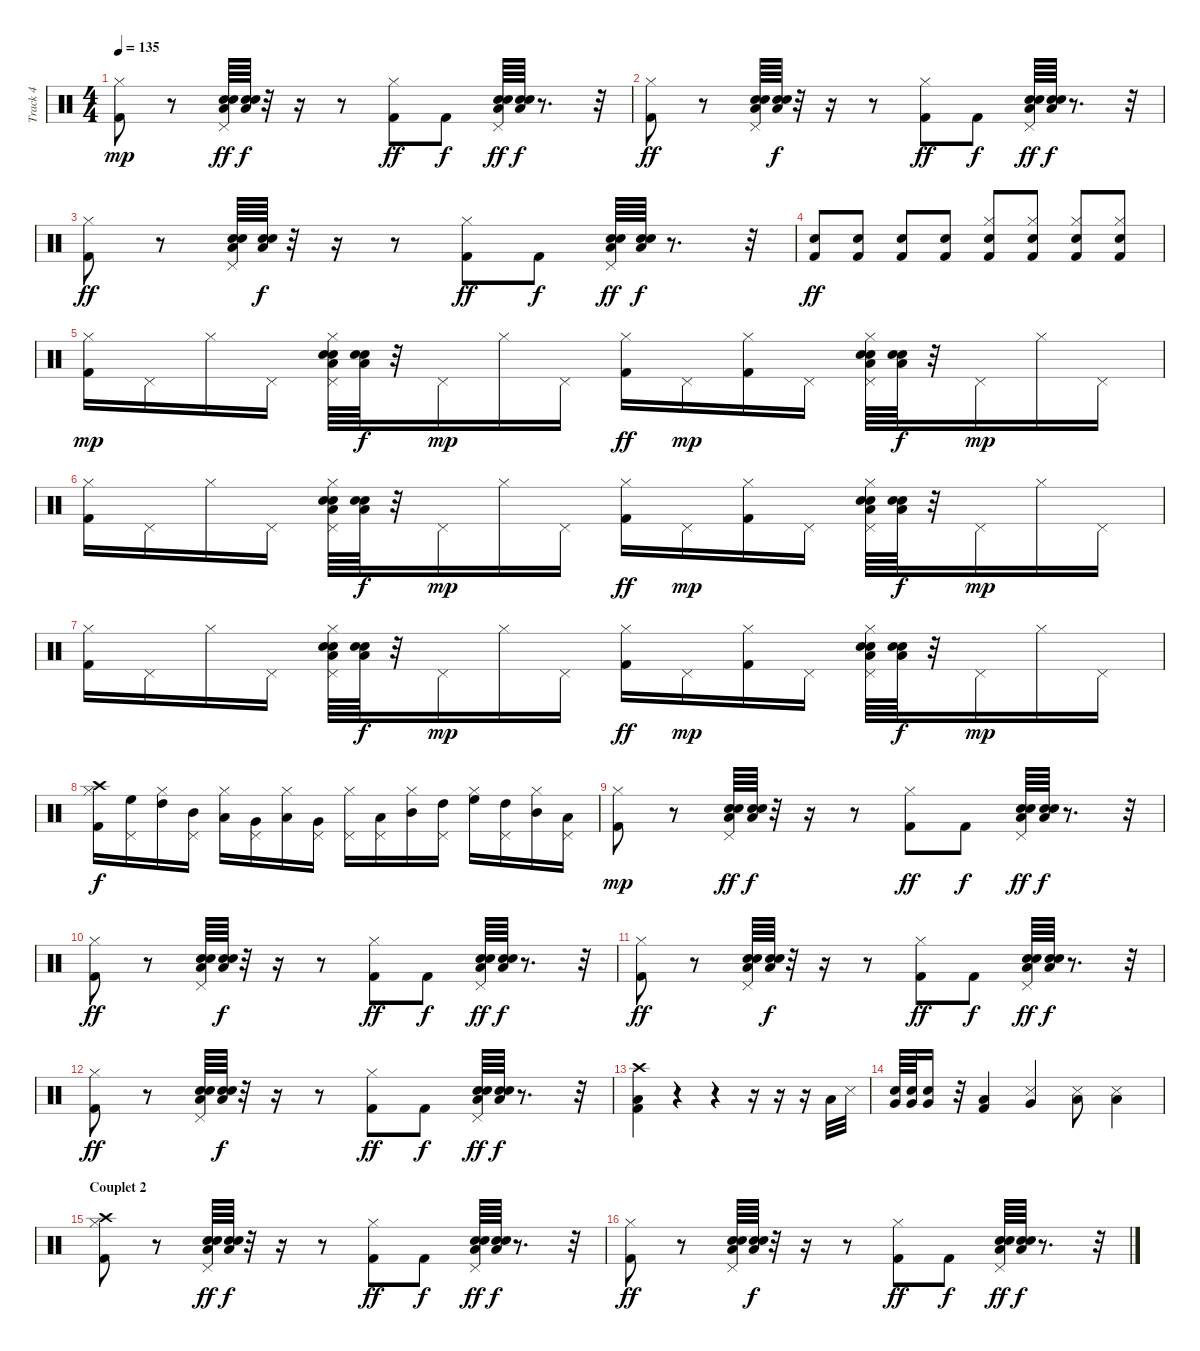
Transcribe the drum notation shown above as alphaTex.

\track ("Track 4" "Track 4") {instrument percussion}
\staff {score}
\articulation defaults
\ts (4 4)
\tempo 135
\clef neutral
\ks c
("Kick (hit) 2" "Hi-Hat (closed)").8{dy mp} r.8 ("Electric Snare (hit)" "Low Tom (hit)" "Snare (hit) 2" "Pedal Hi-Hat (hit)").64{dy ff} ("Electric Snare (hit)" "Low Tom (hit)" "Snare (hit) 2").64{dy f} r.32 r.16 r.8 ("Kick (hit) 2" "Hi-Hat (closed)").8{dy ff} "Kick (hit) 2".8{dy f} ("Electric Snare (hit)" "Low Tom (hit)" "Snare (hit) 2" "Pedal Hi-Hat (hit)").64{dy ff} ("Electric Snare (hit)" "Low Tom (hit)" "Snare (hit) 2").64{dy f} r.8{d} r.32 |
("Kick (hit) 2" "Hi-Hat (closed)").8{dy ff} r.8 ("Electric Snare (hit)" "Low Tom (hit)" "Snare (hit) 2" "Pedal Hi-Hat (hit)").64 ("Electric Snare (hit)" "Low Tom (hit)" "Snare (hit) 2").64{dy f} r.32 r.16 r.8 ("Kick (hit) 2" "Hi-Hat (closed)").8{dy ff} "Kick (hit) 2".8{dy f} ("Electric Snare (hit)" "Low Tom (hit)" "Snare (hit) 2" "Pedal Hi-Hat (hit)").64{dy ff} ("Electric Snare (hit)" "Low Tom (hit)" "Snare (hit) 2").64{dy f} r.8{d} r.32 |
("Kick (hit) 2" "Hi-Hat (closed)").8{dy ff} r.8 ("Electric Snare (hit)" "Low Tom (hit)" "Snare (hit) 2" "Pedal Hi-Hat (hit)").64 ("Electric Snare (hit)" "Low Tom (hit)" "Snare (hit) 2").64{dy f} r.32 r.16 r.8 ("Kick (hit) 2" "Hi-Hat (closed)").8{dy ff} "Kick (hit) 2".8{dy f} ("Electric Snare (hit)" "Low Tom (hit)" "Snare (hit) 2" "Pedal Hi-Hat (hit)").64{dy ff} ("Electric Snare (hit)" "Low Tom (hit)" "Snare (hit) 2").64{dy f} r.8{d} r.32 |
("Kick (hit) 2" "Snare (hit) 2").8{dy ff} ("Kick (hit) 2" "Snare (hit) 2").8 ("Kick (hit) 2" "Snare (hit) 2").8 ("Kick (hit) 2" "Snare (hit) 2").8 ("Kick (hit) 2" "Hi-Hat (closed)" "Snare (hit) 2").8 ("Kick (hit) 2" "Hi-Hat (closed)" "Snare (hit) 2").8 ("Kick (hit) 2" "Hi-Hat (closed)" "Snare (hit) 2").8 ("Kick (hit) 2" "Hi-Hat (closed)" "Snare (hit) 2").8 |
("Kick (hit) 2" "Hi-Hat (closed)").16{dy mp} "Pedal Hi-Hat (hit)".16 "Hi-Hat (closed)".16 "Pedal Hi-Hat (hit)".16 ("Electric Snare (hit)" "Low Tom (hit)" "Snare (hit) 2" "Pedal Hi-Hat (hit)" "Hi-Hat (closed)").64 ("Electric Snare (hit)" "Low Tom (hit)" "Snare (hit) 2").64{dy f} r.32 "Pedal Hi-Hat (hit)".16{dy mp} "Hi-Hat (closed)".16 "Pedal Hi-Hat (hit)".16 ("Kick (hit) 2" "Hi-Hat (closed)").16{dy ff} "Pedal Hi-Hat (hit)".16{dy mp} ("Kick (hit) 2" "Hi-Hat (closed)").16 "Pedal Hi-Hat (hit)".16 ("Electric Snare (hit)" "Low Tom (hit)" "Snare (hit) 2" "Pedal Hi-Hat (hit)" "Hi-Hat (closed)").64 ("Electric Snare (hit)" "Low Tom (hit)" "Snare (hit) 2").64{dy f} r.32 "Pedal Hi-Hat (hit)".16{dy mp} "Hi-Hat (closed)".16 "Pedal Hi-Hat (hit)".16 |
("Kick (hit) 2" "Hi-Hat (closed)").16 "Pedal Hi-Hat (hit)".16 "Hi-Hat (closed)".16 "Pedal Hi-Hat (hit)".16 ("Electric Snare (hit)" "Low Tom (hit)" "Snare (hit) 2" "Pedal Hi-Hat (hit)" "Hi-Hat (closed)").64 ("Electric Snare (hit)" "Low Tom (hit)" "Snare (hit) 2").64{dy f} r.32 "Pedal Hi-Hat (hit)".16{dy mp} "Hi-Hat (closed)".16 "Pedal Hi-Hat (hit)".16 ("Kick (hit) 2" "Hi-Hat (closed)").16{dy ff} "Pedal Hi-Hat (hit)".16{dy mp} ("Kick (hit) 2" "Hi-Hat (closed)").16 "Pedal Hi-Hat (hit)".16 ("Electric Snare (hit)" "Low Tom (hit)" "Snare (hit) 2" "Pedal Hi-Hat (hit)" "Hi-Hat (closed)").64 ("Electric Snare (hit)" "Low Tom (hit)" "Snare (hit) 2").64{dy f} r.32 "Pedal Hi-Hat (hit)".16{dy mp} "Hi-Hat (closed)".16 "Pedal Hi-Hat (hit)".16 |
("Kick (hit) 2" "Hi-Hat (closed)").16 "Pedal Hi-Hat (hit)".16 "Hi-Hat (closed)".16 "Pedal Hi-Hat (hit)".16 ("Electric Snare (hit)" "Low Tom (hit)" "Snare (hit) 2" "Pedal Hi-Hat (hit)" "Hi-Hat (closed)").64 ("Electric Snare (hit)" "Low Tom (hit)" "Snare (hit) 2").64{dy f} r.32 "Pedal Hi-Hat (hit)".16{dy mp} "Hi-Hat (closed)".16 "Pedal Hi-Hat (hit)".16 ("Kick (hit) 2" "Hi-Hat (closed)").16{dy ff} "Pedal Hi-Hat (hit)".16{dy mp} ("Kick (hit) 2" "Hi-Hat (closed)").16 "Pedal Hi-Hat (hit)".16 ("Electric Snare (hit)" "Low Tom (hit)" "Snare (hit) 2" "Pedal Hi-Hat (hit)" "Hi-Hat (closed)").64 ("Electric Snare (hit)" "Low Tom (hit)" "Snare (hit) 2").64{dy f} r.32 "Pedal Hi-Hat (hit)".16{dy mp} "Hi-Hat (closed)".16 "Pedal Hi-Hat (hit)".16 |
("Hi-Hat (closed)" "Kick (hit) 2" "Crash high (hit)").16{dy f} ("Pedal Hi-Hat (hit)" "High Floor Tom (hit)").16 ("Hi-Hat (closed)" "High Tom (hit)").16 ("Pedal Hi-Hat (hit)" "Mid Tom (hit)").16 ("Hi-Hat (closed)" "Low Tom (hit)").16 ("Pedal Hi-Hat (hit)" "Very Low Tom (hit)").16 ("Hi-Hat (closed)" "Low Floor Tom (hit)").16 ("Pedal Hi-Hat (hit)" "Very Low Tom (hit)").16 ("Hi-Hat (closed)" "Pedal Hi-Hat (hit)").16 ("Pedal Hi-Hat (hit)" "Low Tom (hit)").16 ("Hi-Hat (closed)" "Mid Tom (hit)").16 ("Pedal Hi-Hat (hit)" "High Tom (hit)").16 ("Hi-Hat (closed)" "High Floor Tom (hit)").16 ("Pedal Hi-Hat (hit)" "High Tom (hit)").16 ("Hi-Hat (closed)" "Mid Tom (hit)").16 ("Pedal Hi-Hat (hit)" "Low Tom (hit)").16 |
("Kick (hit) 2" "Hi-Hat (closed)").8{dy mp} r.8 ("Electric Snare (hit)" "Low Tom (hit)" "Snare (hit) 2" "Pedal Hi-Hat (hit)").64{dy ff} ("Electric Snare (hit)" "Low Tom (hit)" "Snare (hit) 2").64{dy f} r.32 r.16 r.8 ("Kick (hit) 2" "Hi-Hat (closed)").8{dy ff} "Kick (hit) 2".8{dy f} ("Electric Snare (hit)" "Low Tom (hit)" "Snare (hit) 2" "Pedal Hi-Hat (hit)").64{dy ff} ("Electric Snare (hit)" "Low Tom (hit)" "Snare (hit) 2").64{dy f} r.8{d} r.32 |
("Kick (hit) 2" "Hi-Hat (closed)").8{dy ff} r.8 ("Electric Snare (hit)" "Low Tom (hit)" "Snare (hit) 2" "Pedal Hi-Hat (hit)").64 ("Electric Snare (hit)" "Low Tom (hit)" "Snare (hit) 2").64{dy f} r.32 r.16 r.8 ("Kick (hit) 2" "Hi-Hat (closed)").8{dy ff} "Kick (hit) 2".8{dy f} ("Electric Snare (hit)" "Low Tom (hit)" "Snare (hit) 2" "Pedal Hi-Hat (hit)").64{dy ff} ("Electric Snare (hit)" "Low Tom (hit)" "Snare (hit) 2").64{dy f} r.8{d} r.32 |
("Kick (hit) 2" "Hi-Hat (closed)").8{dy ff} r.8 ("Electric Snare (hit)" "Low Tom (hit)" "Snare (hit) 2" "Pedal Hi-Hat (hit)").64 ("Electric Snare (hit)" "Low Tom (hit)" "Snare (hit) 2").64{dy f} r.32 r.16 r.8 ("Kick (hit) 2" "Hi-Hat (closed)").8{dy ff} "Kick (hit) 2".8{dy f} ("Electric Snare (hit)" "Low Tom (hit)" "Snare (hit) 2" "Pedal Hi-Hat (hit)").64{dy ff} ("Electric Snare (hit)" "Low Tom (hit)" "Snare (hit) 2").64{dy f} r.8{d} r.32 |
("Kick (hit) 2" "Hi-Hat (closed)").8{dy ff} r.8 ("Electric Snare (hit)" "Low Tom (hit)" "Snare (hit) 2" "Pedal Hi-Hat (hit)").64 ("Electric Snare (hit)" "Low Tom (hit)" "Snare (hit) 2").64{dy f} r.32 r.16 r.8 ("Kick (hit) 2" "Hi-Hat (closed)").8{dy ff} "Kick (hit) 2".8{dy f} ("Electric Snare (hit)" "Low Tom (hit)" "Snare (hit) 2" "Pedal Hi-Hat (hit)").64{dy ff} ("Electric Snare (hit)" "Low Tom (hit)" "Snare (hit) 2").64{dy f} r.8{d} r.32 |
("Low Tom (hit)" "Kick (hit) 2" "Crash high (hit)").4 r.4 r.4 r.16 r.16 r.16 "Low Floor Tom (hit)".32 "Snare (side stick) 3".32 |
("Very Low Tom (hit)" "Electric Snare (hit)").64 ("Very Low Tom (hit)" "Electric Snare (hit)").64 ("Very Low Tom (hit)" "Electric Snare (hit)").16 r.32 ("Low Floor Tom (hit)" "Kick (hit) 2").4 ("Very Low Tom (hit)" "Snare (side stick) 3").4 ("Low Floor Tom (hit)" "Snare (side stick) 3").8 ("Low Floor Tom (hit)" "Snare (side stick) 3").4 |
\section ("" "Couplet 2")
("Kick (hit) 2" "Hi-Hat (closed)" "Crash high (hit)").8 r.8 ("Electric Snare (hit)" "Low Tom (hit)" "Snare (hit) 2" "Pedal Hi-Hat (hit)").64{dy ff} ("Electric Snare (hit)" "Low Tom (hit)" "Snare (hit) 2").64{dy f} r.32 r.16 r.8 ("Kick (hit) 2" "Hi-Hat (closed)").8{dy ff} "Kick (hit) 2".8{dy f} ("Electric Snare (hit)" "Low Tom (hit)" "Snare (hit) 2" "Pedal Hi-Hat (hit)").64{dy ff} ("Electric Snare (hit)" "Low Tom (hit)" "Snare (hit) 2").64{dy f} r.8{d} r.32 |
("Kick (hit) 2" "Hi-Hat (closed)").8{dy ff} r.8 ("Electric Snare (hit)" "Low Tom (hit)" "Snare (hit) 2" "Pedal Hi-Hat (hit)").64 ("Electric Snare (hit)" "Low Tom (hit)" "Snare (hit) 2").64{dy f} r.32 r.16 r.8 ("Kick (hit) 2" "Hi-Hat (closed)").8{dy ff} "Kick (hit) 2".8{dy f} ("Electric Snare (hit)" "Low Tom (hit)" "Snare (hit) 2" "Pedal Hi-Hat (hit)").64{dy ff} ("Electric Snare (hit)" "Low Tom (hit)" "Snare (hit) 2").64{dy f} r.8{d} r.32
